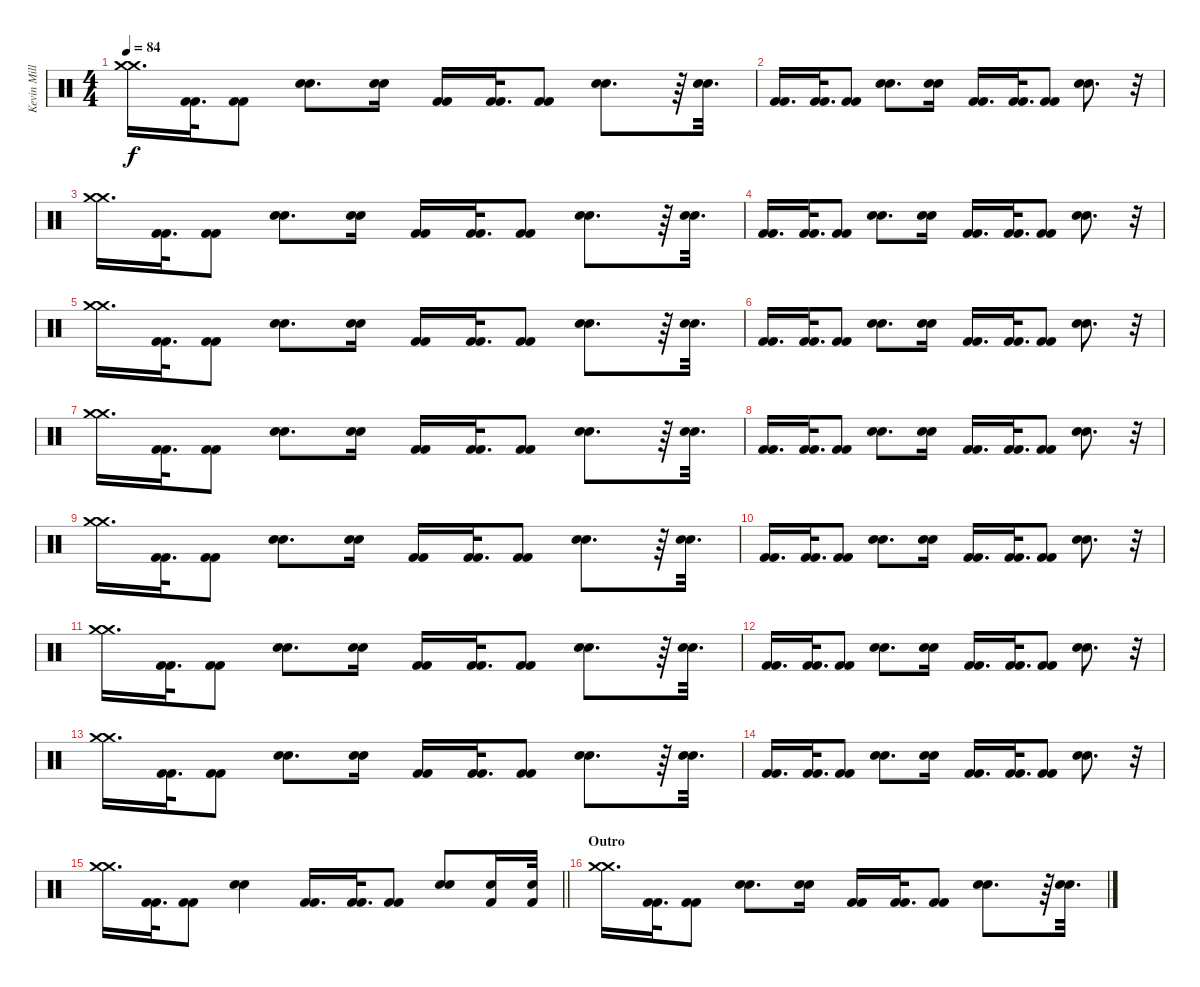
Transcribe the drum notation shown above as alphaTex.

\track ("Kevin Miller (Drums)" "Kevin Mill") {instrument percussion}
\staff {score}
\articulation defaults
\ts (4 4)
\tempo 84
\clef neutral
\ks c
("Crash medium (hit)" "Crash medium (hit)").16{d dy f} ("Kick (hit) 2" "Kick (hit) 2").32{d} ("Kick (hit) 2" "Kick (hit) 2").8 ("Electric Snare (hit)" "Electric Snare (hit)").8{d} ("Electric Snare (hit)" "Electric Snare (hit)").16 ("Kick (hit) 2" "Kick (hit) 2").16 ("Kick (hit) 2" "Kick (hit) 2").32{d} ("Kick (hit) 2" "Kick (hit) 2").8 ("Electric Snare (hit)" "Electric Snare (hit)").8{d} r.64 ("Electric Snare (hit)" "Electric Snare (hit)").32{d} |
("Kick (hit) 2" "Kick (hit) 2").16{d} ("Kick (hit) 2" "Kick (hit) 2").32{d} ("Kick (hit) 2" "Kick (hit) 2").8 ("Electric Snare (hit)" "Electric Snare (hit)").8{d} ("Electric Snare (hit)" "Electric Snare (hit)").16 ("Kick (hit) 2" "Kick (hit) 2").16{d} ("Kick (hit) 2" "Kick (hit) 2").32{d} ("Kick (hit) 2" "Kick (hit) 2").8 ("Electric Snare (hit)" "Electric Snare (hit)").8{d} r.32 |
("Crash medium (hit)" "Crash medium (hit)").16{d} ("Kick (hit) 2" "Kick (hit) 2").32{d} ("Kick (hit) 2" "Kick (hit) 2").8 ("Electric Snare (hit)" "Electric Snare (hit)").8{d} ("Electric Snare (hit)" "Electric Snare (hit)").16 ("Kick (hit) 2" "Kick (hit) 2").16 ("Kick (hit) 2" "Kick (hit) 2").32{d} ("Kick (hit) 2" "Kick (hit) 2").8 ("Electric Snare (hit)" "Electric Snare (hit)").8{d} r.64 ("Electric Snare (hit)" "Electric Snare (hit)").32{d} |
("Kick (hit) 2" "Kick (hit) 2").16{d} ("Kick (hit) 2" "Kick (hit) 2").32{d} ("Kick (hit) 2" "Kick (hit) 2").8 ("Electric Snare (hit)" "Electric Snare (hit)").8{d} ("Electric Snare (hit)" "Electric Snare (hit)").16 ("Kick (hit) 2" "Kick (hit) 2").16{d} ("Kick (hit) 2" "Kick (hit) 2").32{d} ("Kick (hit) 2" "Kick (hit) 2").8 ("Electric Snare (hit)" "Electric Snare (hit)").8{d} r.32 |
("Crash medium (hit)" "Crash medium (hit)").16{d} ("Kick (hit) 2" "Kick (hit) 2").32{d} ("Kick (hit) 2" "Kick (hit) 2").8 ("Electric Snare (hit)" "Electric Snare (hit)").8{d} ("Electric Snare (hit)" "Electric Snare (hit)").16 ("Kick (hit) 2" "Kick (hit) 2").16 ("Kick (hit) 2" "Kick (hit) 2").32{d} ("Kick (hit) 2" "Kick (hit) 2").8 ("Electric Snare (hit)" "Electric Snare (hit)").8{d} r.64 ("Electric Snare (hit)" "Electric Snare (hit)").32{d} |
("Kick (hit) 2" "Kick (hit) 2").16{d} ("Kick (hit) 2" "Kick (hit) 2").32{d} ("Kick (hit) 2" "Kick (hit) 2").8 ("Electric Snare (hit)" "Electric Snare (hit)").8{d} ("Electric Snare (hit)" "Electric Snare (hit)").16 ("Kick (hit) 2" "Kick (hit) 2").16{d} ("Kick (hit) 2" "Kick (hit) 2").32{d} ("Kick (hit) 2" "Kick (hit) 2").8 ("Electric Snare (hit)" "Electric Snare (hit)").8{d} r.32 |
("Crash medium (hit)" "Crash medium (hit)").16{d} ("Kick (hit) 2" "Kick (hit) 2").32{d} ("Kick (hit) 2" "Kick (hit) 2").8 ("Electric Snare (hit)" "Electric Snare (hit)").8{d} ("Electric Snare (hit)" "Electric Snare (hit)").16 ("Kick (hit) 2" "Kick (hit) 2").16 ("Kick (hit) 2" "Kick (hit) 2").32{d} ("Kick (hit) 2" "Kick (hit) 2").8 ("Electric Snare (hit)" "Electric Snare (hit)").8{d} r.64 ("Electric Snare (hit)" "Electric Snare (hit)").32{d} |
("Kick (hit) 2" "Kick (hit) 2").16{d} ("Kick (hit) 2" "Kick (hit) 2").32{d} ("Kick (hit) 2" "Kick (hit) 2").8 ("Electric Snare (hit)" "Electric Snare (hit)").8{d} ("Electric Snare (hit)" "Electric Snare (hit)").16 ("Kick (hit) 2" "Kick (hit) 2").16{d} ("Kick (hit) 2" "Kick (hit) 2").32{d} ("Kick (hit) 2" "Kick (hit) 2").8 ("Electric Snare (hit)" "Electric Snare (hit)").8{d} r.32 |
("Crash medium (hit)" "Crash medium (hit)").16{d} ("Kick (hit) 2" "Kick (hit) 2").32{d} ("Kick (hit) 2" "Kick (hit) 2").8 ("Electric Snare (hit)" "Electric Snare (hit)").8{d} ("Electric Snare (hit)" "Electric Snare (hit)").16 ("Kick (hit) 2" "Kick (hit) 2").16 ("Kick (hit) 2" "Kick (hit) 2").32{d} ("Kick (hit) 2" "Kick (hit) 2").8 ("Electric Snare (hit)" "Electric Snare (hit)").8{d} r.64 ("Electric Snare (hit)" "Electric Snare (hit)").32{d} |
("Kick (hit) 2" "Kick (hit) 2").16{d} ("Kick (hit) 2" "Kick (hit) 2").32{d} ("Kick (hit) 2" "Kick (hit) 2").8 ("Electric Snare (hit)" "Electric Snare (hit)").8{d} ("Electric Snare (hit)" "Electric Snare (hit)").16 ("Kick (hit) 2" "Kick (hit) 2").16{d} ("Kick (hit) 2" "Kick (hit) 2").32{d} ("Kick (hit) 2" "Kick (hit) 2").8 ("Electric Snare (hit)" "Electric Snare (hit)").8{d} r.32 |
("Crash medium (hit)" "Crash medium (hit)").16{d} ("Kick (hit) 2" "Kick (hit) 2").32{d} ("Kick (hit) 2" "Kick (hit) 2").8 ("Electric Snare (hit)" "Electric Snare (hit)").8{d} ("Electric Snare (hit)" "Electric Snare (hit)").16 ("Kick (hit) 2" "Kick (hit) 2").16 ("Kick (hit) 2" "Kick (hit) 2").32{d} ("Kick (hit) 2" "Kick (hit) 2").8 ("Electric Snare (hit)" "Electric Snare (hit)").8{d} r.64 ("Electric Snare (hit)" "Electric Snare (hit)").32{d} |
("Kick (hit) 2" "Kick (hit) 2").16{d} ("Kick (hit) 2" "Kick (hit) 2").32{d} ("Kick (hit) 2" "Kick (hit) 2").8 ("Electric Snare (hit)" "Electric Snare (hit)").8{d} ("Electric Snare (hit)" "Electric Snare (hit)").16 ("Kick (hit) 2" "Kick (hit) 2").16{d} ("Kick (hit) 2" "Kick (hit) 2").32{d} ("Kick (hit) 2" "Kick (hit) 2").8 ("Electric Snare (hit)" "Electric Snare (hit)").8{d} r.32 |
("Crash medium (hit)" "Crash medium (hit)").16{d} ("Kick (hit) 2" "Kick (hit) 2").32{d} ("Kick (hit) 2" "Kick (hit) 2").8 ("Electric Snare (hit)" "Electric Snare (hit)").8{d} ("Electric Snare (hit)" "Electric Snare (hit)").16 ("Kick (hit) 2" "Kick (hit) 2").16 ("Kick (hit) 2" "Kick (hit) 2").32{d} ("Kick (hit) 2" "Kick (hit) 2").8 ("Electric Snare (hit)" "Electric Snare (hit)").8{d} r.64 ("Electric Snare (hit)" "Electric Snare (hit)").32{d} |
("Kick (hit) 2" "Kick (hit) 2").16{d} ("Kick (hit) 2" "Kick (hit) 2").32{d} ("Kick (hit) 2" "Kick (hit) 2").8 ("Electric Snare (hit)" "Electric Snare (hit)").8{d} ("Electric Snare (hit)" "Electric Snare (hit)").16 ("Kick (hit) 2" "Kick (hit) 2").16{d} ("Kick (hit) 2" "Kick (hit) 2").32{d} ("Kick (hit) 2" "Kick (hit) 2").8 ("Electric Snare (hit)" "Electric Snare (hit)").8{d} r.32 |
\barLineRight lightlight
("Crash medium (hit)" "Crash medium (hit)").16{d} ("Kick (hit) 2" "Kick (hit) 2").32{d} ("Kick (hit) 2" "Kick (hit) 2").8 ("Electric Snare (hit)" "Electric Snare (hit)").4 ("Kick (hit) 2" "Kick (hit) 2").16{d} ("Kick (hit) 2" "Kick (hit) 2").32{d} ("Kick (hit) 2" "Kick (hit) 2").8 ("Electric Snare (hit)" "Electric Snare (hit)").8 ("Electric Snare (hit)" "Kick (hit) 2").16 ("Electric Snare (hit)" "Kick (hit) 2").32 |
\section ("" "Outro")
("Crash medium (hit)" "Crash medium (hit)").16{d} ("Kick (hit) 2" "Kick (hit) 2").32{d} ("Kick (hit) 2" "Kick (hit) 2").8 ("Electric Snare (hit)" "Electric Snare (hit)").8{d} ("Electric Snare (hit)" "Electric Snare (hit)").16 ("Kick (hit) 2" "Kick (hit) 2").16 ("Kick (hit) 2" "Kick (hit) 2").32{d} ("Kick (hit) 2" "Kick (hit) 2").8 ("Electric Snare (hit)" "Electric Snare (hit)").8{d} r.64 ("Electric Snare (hit)" "Electric Snare (hit)").32{d}
